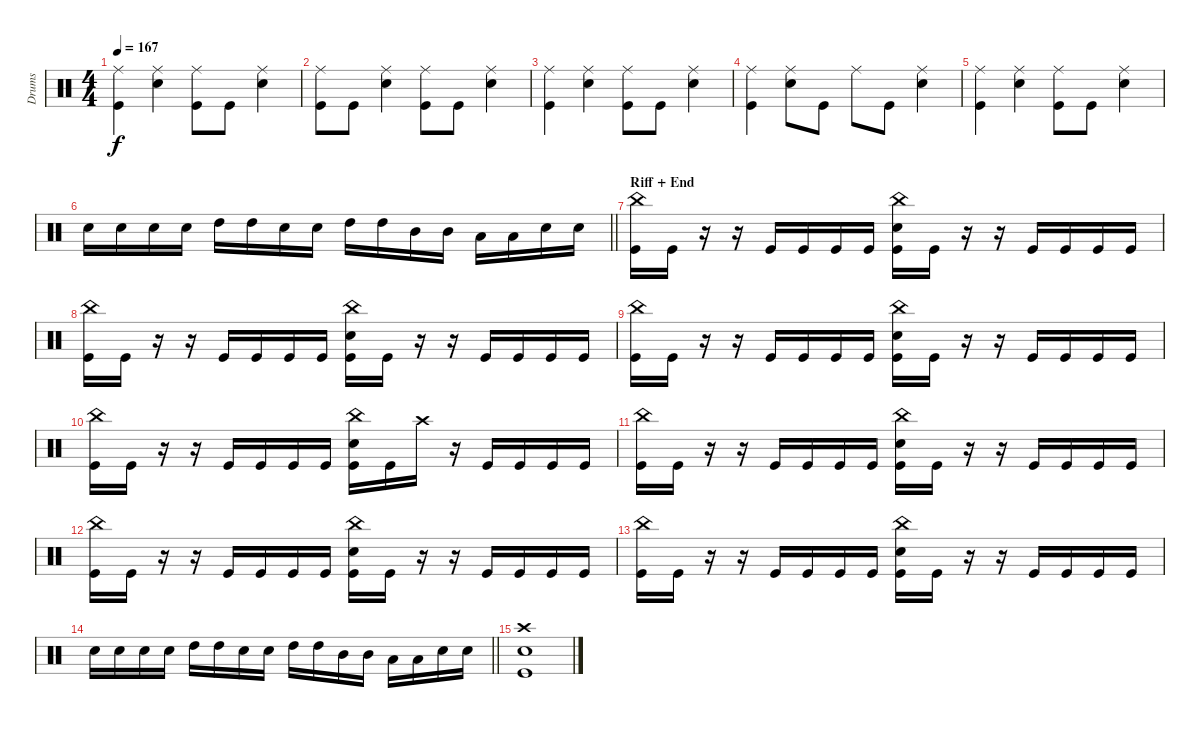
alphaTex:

\track ("Drums" "Drums") {instrument percussion}
\staff {score}
\articulation defaults
\ts (4 4)
\tempo 167
\clef neutral
\ks c
("Ride (middle)" "Kick (hit)").4{dy f} ("Ride (middle)" "Snare (hit) 2").4 ("Ride (middle)" "Kick (hit)").8 "Kick (hit)".8 ("Ride (middle)" "Snare (hit) 2").4 |
("Ride (middle)" "Kick (hit)").8 "Kick (hit)".8 ("Ride (middle)" "Snare (hit) 2").4 ("Ride (middle)" "Kick (hit)").8 "Kick (hit)".8 ("Ride (middle)" "Snare (hit) 2").4 |
("Ride (middle)" "Kick (hit)").4 ("Ride (middle)" "Snare (hit) 2").4 ("Ride (middle)" "Kick (hit)").8 "Kick (hit)".8 ("Ride (middle)" "Snare (hit) 2").4 |
("Ride (middle)" "Kick (hit)").4 ("Ride (middle)" "Snare (hit) 2").8 "Kick (hit)".8 "Ride (middle)".8 "Kick (hit)".8 ("Ride (middle)" "Snare (hit) 2").4 |
("Ride (middle)" "Kick (hit)").4 ("Ride (middle)" "Snare (hit) 2").4 ("Ride (middle)" "Kick (hit)").8 "Kick (hit)".8 ("Ride (middle)" "Snare (hit) 2").4 |
\barLineRight lightlight "Snare (hit) 2".16 "Snare (hit) 2".16 "Snare (hit) 2".16 "Snare (hit) 2".16 "High Tom (hit)".16 "High Tom (hit)".16 "Snare (hit) 2".16 "Snare (hit) 2".16 "High Tom (hit)".16 "High Tom (hit)".16 "Mid Tom (hit)".16 "Mid Tom (hit)".16 "Low Tom (hit)".16 "Low Tom (hit)".16 "Snare (hit) 2".16 "Snare (hit) 2".16
|
\section ("" "Riff + End")
("China (hit)" "Kick (hit)").16 "Kick (hit)".16 r.16 r.16 "Kick (hit)".16 "Kick (hit)".16 "Kick (hit)".16 "Kick (hit)".16 ("China (hit)" "Snare (hit) 2" "Kick (hit)").16 "Kick (hit)".16 r.16 r.16 "Kick (hit)".16 "Kick (hit)".16 "Kick (hit)".16 "Kick (hit)".16 |
("China (hit)" "Kick (hit)").16 "Kick (hit)".16 r.16 r.16 "Kick (hit)".16 "Kick (hit)".16 "Kick (hit)".16 "Kick (hit)".16 ("China (hit)" "Snare (hit) 2" "Kick (hit)").16 "Kick (hit)".16 r.16 r.16 "Kick (hit)".16 "Kick (hit)".16 "Kick (hit)".16 "Kick (hit)".16 |
("China (hit)" "Kick (hit)").16 "Kick (hit)".16 r.16 r.16 "Kick (hit)".16 "Kick (hit)".16 "Kick (hit)".16 "Kick (hit)".16 ("China (hit)" "Snare (hit) 2" "Kick (hit)").16 "Kick (hit)".16 r.16 r.16 "Kick (hit)".16 "Kick (hit)".16 "Kick (hit)".16 "Kick (hit)".16 |
("China (hit)" "Kick (hit)").16 "Kick (hit)".16 r.16 r.16 "Kick (hit)".16 "Kick (hit)".16 "Kick (hit)".16 "Kick (hit)".16 ("China (hit)" "Snare (hit) 2" "Kick (hit)").16 "Kick (hit)".16 "Crash high (hit)".16 r.16 "Kick (hit)".16 "Kick (hit)".16 "Kick (hit)".16 "Kick (hit)".16 |
("China (hit)" "Kick (hit)").16 "Kick (hit)".16 r.16 r.16 "Kick (hit)".16 "Kick (hit)".16 "Kick (hit)".16 "Kick (hit)".16 ("China (hit)" "Snare (hit) 2" "Kick (hit)").16 "Kick (hit)".16 r.16 r.16 "Kick (hit)".16 "Kick (hit)".16 "Kick (hit)".16 "Kick (hit)".16 |
("China (hit)" "Kick (hit)").16 "Kick (hit)".16 r.16 r.16 "Kick (hit)".16 "Kick (hit)".16 "Kick (hit)".16 "Kick (hit)".16 ("China (hit)" "Snare (hit) 2" "Kick (hit)").16 "Kick (hit)".16 r.16 r.16 "Kick (hit)".16 "Kick (hit)".16 "Kick (hit)".16 "Kick (hit)".16 |
("China (hit)" "Kick (hit)").16 "Kick (hit)".16 r.16 r.16 "Kick (hit)".16 "Kick (hit)".16 "Kick (hit)".16 "Kick (hit)".16 ("China (hit)" "Snare (hit) 2" "Kick (hit)").16 "Kick (hit)".16 r.16 r.16 "Kick (hit)".16 "Kick (hit)".16 "Kick (hit)".16 "Kick (hit)".16 |
\barLineRight lightlight "Snare (hit) 2".16 "Snare (hit) 2".16 "Snare (hit) 2".16 "Snare (hit) 2".16 "High Tom (hit)".16 "High Tom (hit)".16 "Snare (hit) 2".16 "Snare (hit) 2".16 "High Tom (hit)".16 "High Tom (hit)".16 "Mid Tom (hit)".16 "Mid Tom (hit)".16 "Low Tom (hit)".16 "Low Tom (hit)".16 "Snare (hit) 2".16 "Snare (hit) 2".16
|
("Crash high (hit)" "Snare (hit) 2" "Kick (hit)").1
